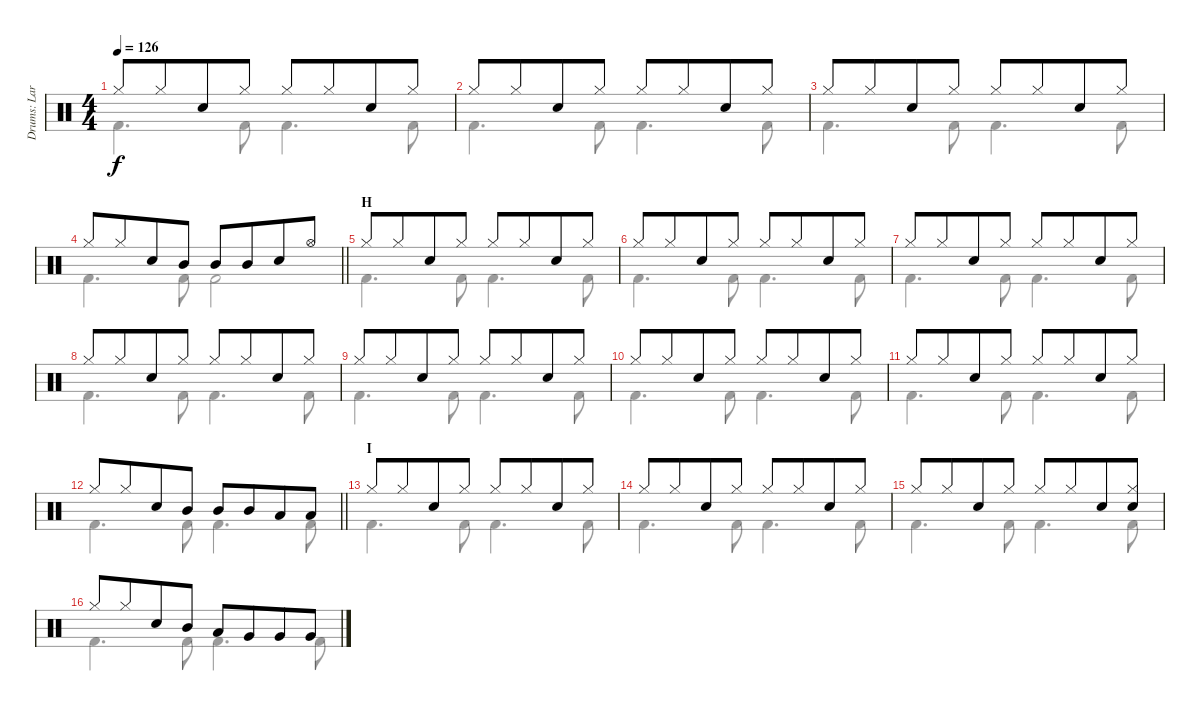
\track ("Drums: Larrie" "Drums: Lar") {instrument percussion}
\staff {score}
\articulation defaults
\voice
\ts (4 4)
\tempo 126
\clef neutral
\ks c "Hi-Hat (closed)".8{dy f} "Hi-Hat (closed)".8{beam merge} "Snare (hit) 2".8 "Hi-Hat (closed)".8 "Hi-Hat (closed)".8 "Hi-Hat (closed)".8{beam merge} "Snare (hit) 2".8 "Hi-Hat (closed)".8
|
"Hi-Hat (closed)".8 "Hi-Hat (closed)".8{beam merge} "Snare (hit) 2".8 "Hi-Hat (closed)".8 "Hi-Hat (closed)".8 "Hi-Hat (closed)".8{beam merge} "Snare (hit) 2".8 "Hi-Hat (closed)".8 |
"Hi-Hat (closed)".8 "Hi-Hat (closed)".8{beam merge} "Snare (hit) 2".8 "Hi-Hat (closed)".8 "Hi-Hat (closed)".8 "Hi-Hat (closed)".8{beam merge} "Snare (hit) 2".8 "Hi-Hat (closed)".8 |
\barLineRight lightlight "Hi-Hat (closed)".8 "Hi-Hat (closed)".8{beam merge} "Snare (hit) 2".8 "Mid Tom (hit)".8 "Mid Tom (hit)".8 "Mid Tom (hit)".8{beam merge} "Snare (hit) 2".8 "Hi-Hat (open)".8
|
\section ("" "H")
"Hi-Hat (closed)".8 "Hi-Hat (closed)".8{beam merge} "Snare (hit) 2".8 "Hi-Hat (closed)".8 "Hi-Hat (closed)".8 "Hi-Hat (closed)".8{beam merge} "Snare (hit) 2".8 "Hi-Hat (closed)".8 |
"Hi-Hat (closed)".8 "Hi-Hat (closed)".8{beam merge} "Snare (hit) 2".8 "Hi-Hat (closed)".8 "Hi-Hat (closed)".8 "Hi-Hat (closed)".8{beam merge} "Snare (hit) 2".8 "Hi-Hat (closed)".8 |
"Hi-Hat (closed)".8 "Hi-Hat (closed)".8{beam merge} "Snare (hit) 2".8 "Hi-Hat (closed)".8 "Hi-Hat (closed)".8 "Hi-Hat (closed)".8{beam merge} "Snare (hit) 2".8 "Hi-Hat (closed)".8 |
"Hi-Hat (closed)".8 "Hi-Hat (closed)".8{beam merge} "Snare (hit) 2".8 "Hi-Hat (closed)".8 "Hi-Hat (closed)".8 "Hi-Hat (closed)".8{beam merge} "Snare (hit) 2".8 "Hi-Hat (closed)".8 |
"Hi-Hat (closed)".8 "Hi-Hat (closed)".8{beam merge} "Snare (hit) 2".8 "Hi-Hat (closed)".8 "Hi-Hat (closed)".8 "Hi-Hat (closed)".8{beam merge} "Snare (hit) 2".8 "Hi-Hat (closed)".8 |
"Hi-Hat (closed)".8 "Hi-Hat (closed)".8{beam merge} "Snare (hit) 2".8 "Hi-Hat (closed)".8 "Hi-Hat (closed)".8 "Hi-Hat (closed)".8{beam merge} "Snare (hit) 2".8 "Hi-Hat (closed)".8 |
"Hi-Hat (closed)".8 "Hi-Hat (closed)".8{beam merge} "Snare (hit) 2".8 "Hi-Hat (closed)".8 "Hi-Hat (closed)".8 "Hi-Hat (closed)".8{beam merge} "Snare (hit) 2".8 "Hi-Hat (closed)".8 |
\barLineRight lightlight "Hi-Hat (closed)".8 "Hi-Hat (closed)".8{beam merge} "Snare (hit) 2".8 "Mid Tom (hit)".8 "Mid Tom (hit)".8 "Mid Tom (hit)".8{beam merge} "Low Tom (hit)".8 "Low Tom (hit)".8
|
\section ("" "I")
"Hi-Hat (closed)".8 "Hi-Hat (closed)".8{beam merge} "Snare (hit) 2".8 "Hi-Hat (closed)".8 "Hi-Hat (closed)".8 "Hi-Hat (closed)".8{beam merge} "Snare (hit) 2".8 "Hi-Hat (closed)".8 |
"Hi-Hat (closed)".8 "Hi-Hat (closed)".8{beam merge} "Snare (hit) 2".8 "Hi-Hat (closed)".8 "Hi-Hat (closed)".8 "Hi-Hat (closed)".8{beam merge} "Snare (hit) 2".8 "Hi-Hat (closed)".8 |
"Hi-Hat (closed)".8 "Hi-Hat (closed)".8{beam merge} "Snare (hit) 2".8 "Hi-Hat (closed)".8 "Hi-Hat (closed)".8 "Hi-Hat (closed)".8{beam merge} "Snare (hit) 2".8 ("Hi-Hat (closed)" "Snare (hit) 2").8 |
"Hi-Hat (closed)".8 "Hi-Hat (closed)".8{beam merge} "Snare (hit) 2".8 "Mid Tom (hit)".8 "Low Tom (hit)".8 "Very Low Tom (hit)".8{beam merge} "Very Low Tom (hit)".8 "Very Low Tom (hit)".8
\voice
\clef neutral
\ottava regular
\simile none
\ks c "Kick (hit) 2".4{d dy f} "Kick (hit) 2".8 "Kick (hit) 2".4{d} "Kick (hit) 2".8
|
"Kick (hit) 2".4{d} "Kick (hit) 2".8 "Kick (hit) 2".4{d} "Kick (hit) 2".8 |
"Kick (hit) 2".4{d} "Kick (hit) 2".8 "Kick (hit) 2".4{d} "Kick (hit) 2".8 |
\barLineRight lightlight "Kick (hit) 2".4{d} "Kick (hit) 2".8 "Kick (hit) 2".2
|
"Kick (hit) 2".4{d} "Kick (hit) 2".8 "Kick (hit) 2".4{d} "Kick (hit) 2".8 |
"Kick (hit) 2".4{d} "Kick (hit) 2".8 "Kick (hit) 2".4{d} "Kick (hit) 2".8 |
"Kick (hit) 2".4{d} "Kick (hit) 2".8 "Kick (hit) 2".4{d} "Kick (hit) 2".8 |
"Kick (hit) 2".4{d} "Kick (hit) 2".8 "Kick (hit) 2".4{d} "Kick (hit) 2".8 |
"Kick (hit) 2".4{d} "Kick (hit) 2".8 "Kick (hit) 2".4{d} "Kick (hit) 2".8 |
"Kick (hit) 2".4{d} "Kick (hit) 2".8 "Kick (hit) 2".4{d} "Kick (hit) 2".8 |
"Kick (hit) 2".4{d} "Kick (hit) 2".8 "Kick (hit) 2".4{d} "Kick (hit) 2".8 |
\barLineRight lightlight "Kick (hit) 2".4{d} "Kick (hit) 2".8 "Kick (hit) 2".4{d} "Kick (hit) 2".8
|
"Kick (hit) 2".4{d} "Kick (hit) 2".8 "Kick (hit) 2".4{d} "Kick (hit) 2".8 |
"Kick (hit) 2".4{d} "Kick (hit) 2".8 "Kick (hit) 2".4{d} "Kick (hit) 2".8 |
"Kick (hit) 2".4{d} "Kick (hit) 2".8 "Kick (hit) 2".4{d} "Kick (hit) 2".8 |
"Kick (hit) 2".4{d} "Kick (hit) 2".8 "Kick (hit) 2".4{d} "Kick (hit) 2".8
